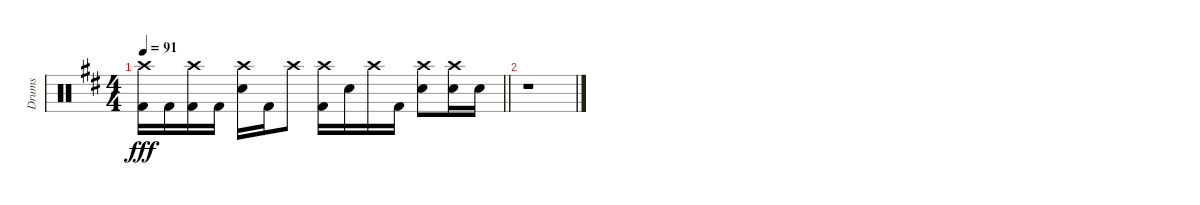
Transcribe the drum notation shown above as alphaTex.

\track ("Drums" "Drums") {instrument percussion}
\staff {score}
\articulation defaults
\ts (4 4)
\tempo 91
\clef neutral
\barLineRight lightlight
\ks d
("Crash high (hit)" "Kick (hit) 2").16{dy fff} "Kick (hit) 2".16 ("Crash high (hit)" "Kick (hit) 2").16 "Kick (hit) 2".16 ("Crash high (hit)" "Snare (hit) 2").16 "Kick (hit) 2".16 "Crash high (hit)".8 ("Crash high (hit)" "Kick (hit) 2").16 "Snare (hit) 2".16 "Crash high (hit)".16 "Kick (hit) 2".16 ("Crash high (hit)" "Snare (hit) 2").8 ("Crash high (hit)" "Snare (hit) 2").16 "Snare (hit) 2".16 |
r.1
